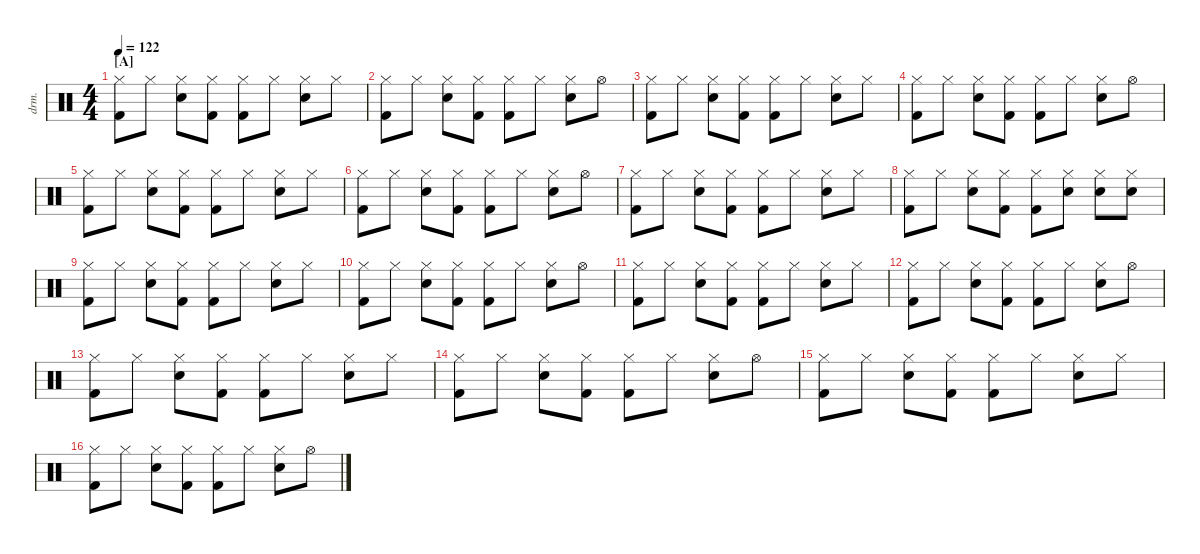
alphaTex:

\defaultSystemsLayout 4
\hideDynamics
\bracketExtendMode nobrackets
\track ("Drumkit" "drm.") {defaultSystemsLayout 4 instrument percussion}
\staff {score}
\articulation defaults
\ts (4 4)
\section ("A" "")
\tempo 122
\clef neutral
\ks c
("Hi-Hat (closed)" "Kick (hit) 2").8{dy f} "Hi-Hat (closed)".8 ("Hi-Hat (closed)" "Snare (hit) 2").8 ("Hi-Hat (closed)" "Kick (hit) 2").8 ("Hi-Hat (closed)" "Kick (hit) 2").8 "Hi-Hat (closed)".8 ("Hi-Hat (closed)" "Snare (hit) 2").8 "Hi-Hat (closed)".8 |
("Hi-Hat (closed)" "Kick (hit) 2").8 "Hi-Hat (closed)".8 ("Hi-Hat (closed)" "Snare (hit) 2").8 ("Hi-Hat (closed)" "Kick (hit) 2").8 ("Hi-Hat (closed)" "Kick (hit) 2").8 "Hi-Hat (closed)".8 ("Hi-Hat (closed)" "Snare (hit) 2").8 "Hi-Hat (open)".8 |
("Hi-Hat (closed)" "Kick (hit) 2").8 "Hi-Hat (closed)".8 ("Hi-Hat (closed)" "Snare (hit) 2").8 ("Hi-Hat (closed)" "Kick (hit) 2").8 ("Hi-Hat (closed)" "Kick (hit) 2").8 "Hi-Hat (closed)".8 ("Hi-Hat (closed)" "Snare (hit) 2").8 "Hi-Hat (closed)".8 |
("Hi-Hat (closed)" "Kick (hit) 2").8 "Hi-Hat (closed)".8 ("Hi-Hat (closed)" "Snare (hit) 2").8 ("Hi-Hat (closed)" "Kick (hit) 2").8 ("Hi-Hat (closed)" "Kick (hit) 2").8 "Hi-Hat (closed)".8 ("Hi-Hat (closed)" "Snare (hit) 2").8 "Hi-Hat (open)".8 |
\section ("" "")
("Hi-Hat (closed)" "Kick (hit) 2").8 "Hi-Hat (closed)".8 ("Hi-Hat (closed)" "Snare (hit) 2").8 ("Hi-Hat (closed)" "Kick (hit) 2").8 ("Hi-Hat (closed)" "Kick (hit) 2").8 "Hi-Hat (closed)".8 ("Hi-Hat (closed)" "Snare (hit) 2").8 "Hi-Hat (closed)".8 |
("Hi-Hat (closed)" "Kick (hit) 2").8 "Hi-Hat (closed)".8 ("Hi-Hat (closed)" "Snare (hit) 2").8 ("Hi-Hat (closed)" "Kick (hit) 2").8 ("Hi-Hat (closed)" "Kick (hit) 2").8 "Hi-Hat (closed)".8 ("Hi-Hat (closed)" "Snare (hit) 2").8 "Hi-Hat (open)".8 |
("Hi-Hat (closed)" "Kick (hit) 2").8 "Hi-Hat (closed)".8 ("Hi-Hat (closed)" "Snare (hit) 2").8 ("Hi-Hat (closed)" "Kick (hit) 2").8 ("Hi-Hat (closed)" "Kick (hit) 2").8 "Hi-Hat (closed)".8 ("Hi-Hat (closed)" "Snare (hit) 2").8 "Hi-Hat (closed)".8 |
("Hi-Hat (closed)" "Kick (hit) 2").8 "Hi-Hat (closed)".8 ("Hi-Hat (closed)" "Snare (hit) 2").8 ("Hi-Hat (closed)" "Kick (hit) 2").8 ("Hi-Hat (closed)" "Kick (hit) 2").8 ("Hi-Hat (closed)" "Snare (hit) 2").8 ("Hi-Hat (closed)" "Snare (hit) 2").8 ("Hi-Hat (closed)" "Snare (hit) 2").8 |
("Hi-Hat (closed)" "Kick (hit) 2").8 "Hi-Hat (closed)".8 ("Hi-Hat (closed)" "Snare (hit) 2").8 ("Hi-Hat (closed)" "Kick (hit) 2").8 ("Hi-Hat (closed)" "Kick (hit) 2").8 "Hi-Hat (closed)".8 ("Hi-Hat (closed)" "Snare (hit) 2").8 "Hi-Hat (closed)".8 |
("Hi-Hat (closed)" "Kick (hit) 2").8 "Hi-Hat (closed)".8 ("Hi-Hat (closed)" "Snare (hit) 2").8 ("Hi-Hat (closed)" "Kick (hit) 2").8 ("Hi-Hat (closed)" "Kick (hit) 2").8 "Hi-Hat (closed)".8 ("Hi-Hat (closed)" "Snare (hit) 2").8 "Hi-Hat (open)".8 |
("Hi-Hat (closed)" "Kick (hit) 2").8 "Hi-Hat (closed)".8 ("Hi-Hat (closed)" "Snare (hit) 2").8 ("Hi-Hat (closed)" "Kick (hit) 2").8 ("Hi-Hat (closed)" "Kick (hit) 2").8 "Hi-Hat (closed)".8 ("Hi-Hat (closed)" "Snare (hit) 2").8 "Hi-Hat (closed)".8 |
("Hi-Hat (closed)" "Kick (hit) 2").8 "Hi-Hat (closed)".8 ("Hi-Hat (closed)" "Snare (hit) 2").8 ("Hi-Hat (closed)" "Kick (hit) 2").8 ("Hi-Hat (closed)" "Kick (hit) 2").8 "Hi-Hat (closed)".8 ("Hi-Hat (closed)" "Snare (hit) 2").8 "Hi-Hat (open)".8 |
("Hi-Hat (closed)" "Kick (hit) 2").8 "Hi-Hat (closed)".8 ("Hi-Hat (closed)" "Snare (hit) 2").8 ("Hi-Hat (closed)" "Kick (hit) 2").8 ("Hi-Hat (closed)" "Kick (hit) 2").8 "Hi-Hat (closed)".8 ("Hi-Hat (closed)" "Snare (hit) 2").8 "Hi-Hat (closed)".8 |
("Hi-Hat (closed)" "Kick (hit) 2").8 "Hi-Hat (closed)".8 ("Hi-Hat (closed)" "Snare (hit) 2").8 ("Hi-Hat (closed)" "Kick (hit) 2").8 ("Hi-Hat (closed)" "Kick (hit) 2").8 "Hi-Hat (closed)".8 ("Hi-Hat (closed)" "Snare (hit) 2").8 "Hi-Hat (open)".8 |
("Hi-Hat (closed)" "Kick (hit) 2").8 "Hi-Hat (closed)".8 ("Hi-Hat (closed)" "Snare (hit) 2").8 ("Hi-Hat (closed)" "Kick (hit) 2").8 ("Hi-Hat (closed)" "Kick (hit) 2").8 "Hi-Hat (closed)".8 ("Hi-Hat (closed)" "Snare (hit) 2").8 "Hi-Hat (closed)".8 |
("Hi-Hat (closed)" "Kick (hit) 2").8 "Hi-Hat (closed)".8 ("Hi-Hat (closed)" "Snare (hit) 2").8 ("Hi-Hat (closed)" "Kick (hit) 2").8 ("Hi-Hat (closed)" "Kick (hit) 2").8 "Hi-Hat (closed)".8 ("Hi-Hat (closed)" "Snare (hit) 2").8 "Hi-Hat (open)".8
